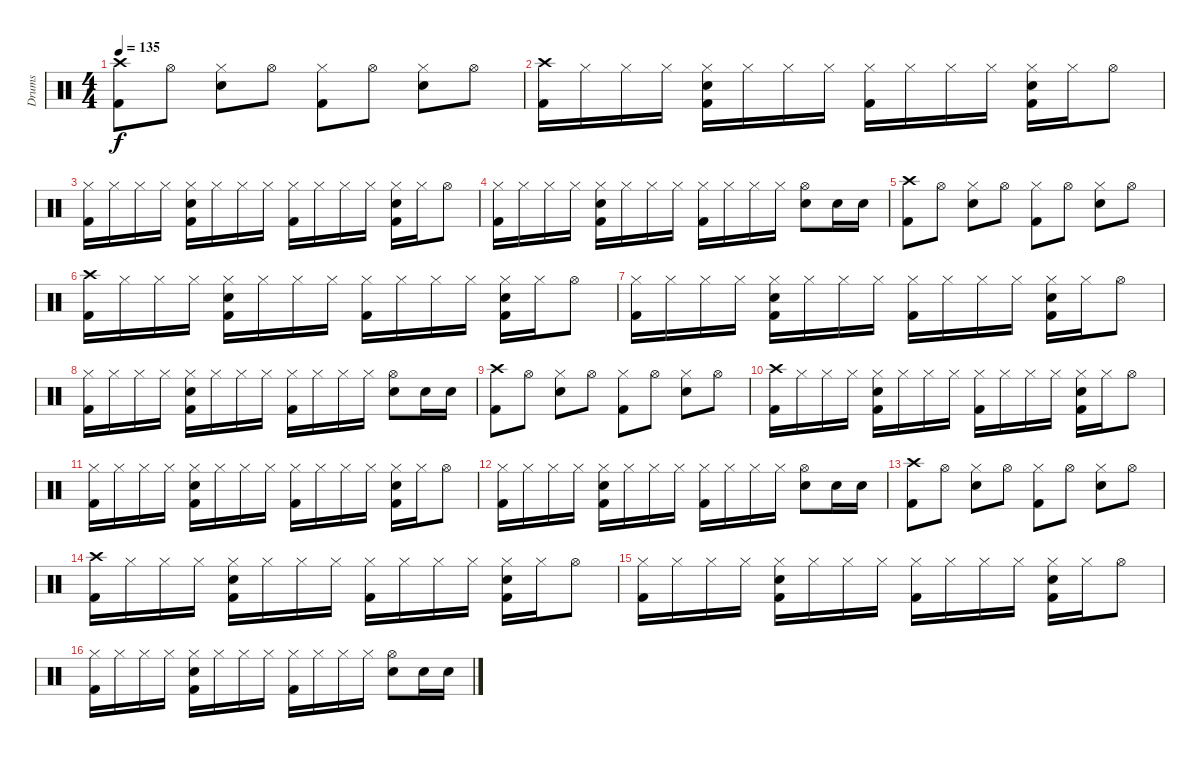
\track ("Drums" "Drums") {instrument percussion}
\staff {score}
\articulation defaults
\ts (4 4)
\tempo 135
\clef neutral
\ks c
("Crash high (hit)" "Kick (hit) 2").8{dy f} "Hi-Hat (open)".8 ("Hi-Hat (closed)" "Electric Snare (hit)").8 "Hi-Hat (open)".8 ("Hi-Hat (closed)" "Kick (hit) 2").8 "Hi-Hat (open)".8 ("Hi-Hat (closed)" "Electric Snare (hit)").8 "Hi-Hat (open)".8 |
("Crash high (hit)" "Kick (hit) 2").16 "Hi-Hat (closed)".16 "Hi-Hat (closed)".16 "Hi-Hat (closed)".16 ("Hi-Hat (closed)" "Electric Snare (hit)" "Kick (hit) 2").16 "Hi-Hat (closed)".16 "Hi-Hat (closed)".16 "Hi-Hat (closed)".16 ("Hi-Hat (closed)" "Kick (hit) 2").16 "Hi-Hat (closed)".16 "Hi-Hat (closed)".16 "Hi-Hat (closed)".16 ("Hi-Hat (closed)" "Electric Snare (hit)" "Kick (hit) 2").16 "Hi-Hat (closed)".16 "Hi-Hat (open)".8 |
("Hi-Hat (closed)" "Kick (hit) 2").16 "Hi-Hat (closed)".16 "Hi-Hat (closed)".16 "Hi-Hat (closed)".16 ("Hi-Hat (closed)" "Electric Snare (hit)" "Kick (hit) 2").16 "Hi-Hat (closed)".16 "Hi-Hat (closed)".16 "Hi-Hat (closed)".16 ("Hi-Hat (closed)" "Kick (hit) 2").16 "Hi-Hat (closed)".16 "Hi-Hat (closed)".16 "Hi-Hat (closed)".16 ("Hi-Hat (closed)" "Electric Snare (hit)" "Kick (hit) 2").16 "Hi-Hat (closed)".16 "Hi-Hat (open)".8 |
("Hi-Hat (closed)" "Kick (hit) 2").16 "Hi-Hat (closed)".16 "Hi-Hat (closed)".16 "Hi-Hat (closed)".16 ("Hi-Hat (closed)" "Electric Snare (hit)" "Kick (hit) 2").16 "Hi-Hat (closed)".16 "Hi-Hat (closed)".16 "Hi-Hat (closed)".16 ("Hi-Hat (closed)" "Kick (hit) 2").16 "Hi-Hat (closed)".16 "Hi-Hat (closed)".16 "Hi-Hat (closed)".16 ("Hi-Hat (open)" "Electric Snare (hit)").8 "Electric Snare (hit)".16 "Electric Snare (hit)".16 |
("Crash high (hit)" "Kick (hit) 2").8 "Hi-Hat (open)".8 ("Hi-Hat (closed)" "Electric Snare (hit)").8 "Hi-Hat (open)".8 ("Hi-Hat (closed)" "Kick (hit) 2").8 "Hi-Hat (open)".8 ("Hi-Hat (closed)" "Electric Snare (hit)").8 "Hi-Hat (open)".8 |
("Crash high (hit)" "Kick (hit) 2").16 "Hi-Hat (closed)".16 "Hi-Hat (closed)".16 "Hi-Hat (closed)".16 ("Hi-Hat (closed)" "Electric Snare (hit)" "Kick (hit) 2").16 "Hi-Hat (closed)".16 "Hi-Hat (closed)".16 "Hi-Hat (closed)".16 ("Hi-Hat (closed)" "Kick (hit) 2").16 "Hi-Hat (closed)".16 "Hi-Hat (closed)".16 "Hi-Hat (closed)".16 ("Hi-Hat (closed)" "Electric Snare (hit)" "Kick (hit) 2").16 "Hi-Hat (closed)".16 "Hi-Hat (open)".8 |
("Hi-Hat (closed)" "Kick (hit) 2").16 "Hi-Hat (closed)".16 "Hi-Hat (closed)".16 "Hi-Hat (closed)".16 ("Hi-Hat (closed)" "Electric Snare (hit)" "Kick (hit) 2").16 "Hi-Hat (closed)".16 "Hi-Hat (closed)".16 "Hi-Hat (closed)".16 ("Hi-Hat (closed)" "Kick (hit) 2").16 "Hi-Hat (closed)".16 "Hi-Hat (closed)".16 "Hi-Hat (closed)".16 ("Hi-Hat (closed)" "Electric Snare (hit)" "Kick (hit) 2").16 "Hi-Hat (closed)".16 "Hi-Hat (open)".8 |
("Hi-Hat (closed)" "Kick (hit) 2").16 "Hi-Hat (closed)".16 "Hi-Hat (closed)".16 "Hi-Hat (closed)".16 ("Hi-Hat (closed)" "Electric Snare (hit)" "Kick (hit) 2").16 "Hi-Hat (closed)".16 "Hi-Hat (closed)".16 "Hi-Hat (closed)".16 ("Hi-Hat (closed)" "Kick (hit) 2").16 "Hi-Hat (closed)".16 "Hi-Hat (closed)".16 "Hi-Hat (closed)".16 ("Hi-Hat (open)" "Electric Snare (hit)").8 "Electric Snare (hit)".16 "Electric Snare (hit)".16 |
("Crash high (hit)" "Kick (hit) 2").8 "Hi-Hat (open)".8 ("Hi-Hat (closed)" "Electric Snare (hit)").8 "Hi-Hat (open)".8 ("Hi-Hat (closed)" "Kick (hit) 2").8 "Hi-Hat (open)".8 ("Hi-Hat (closed)" "Electric Snare (hit)").8 "Hi-Hat (open)".8 |
("Crash high (hit)" "Kick (hit) 2").16 "Hi-Hat (closed)".16 "Hi-Hat (closed)".16 "Hi-Hat (closed)".16 ("Hi-Hat (closed)" "Electric Snare (hit)" "Kick (hit) 2").16 "Hi-Hat (closed)".16 "Hi-Hat (closed)".16 "Hi-Hat (closed)".16 ("Hi-Hat (closed)" "Kick (hit) 2").16 "Hi-Hat (closed)".16 "Hi-Hat (closed)".16 "Hi-Hat (closed)".16 ("Hi-Hat (closed)" "Electric Snare (hit)" "Kick (hit) 2").16 "Hi-Hat (closed)".16 "Hi-Hat (open)".8 |
("Hi-Hat (closed)" "Kick (hit) 2").16 "Hi-Hat (closed)".16 "Hi-Hat (closed)".16 "Hi-Hat (closed)".16 ("Hi-Hat (closed)" "Electric Snare (hit)" "Kick (hit) 2").16 "Hi-Hat (closed)".16 "Hi-Hat (closed)".16 "Hi-Hat (closed)".16 ("Hi-Hat (closed)" "Kick (hit) 2").16 "Hi-Hat (closed)".16 "Hi-Hat (closed)".16 "Hi-Hat (closed)".16 ("Hi-Hat (closed)" "Electric Snare (hit)" "Kick (hit) 2").16 "Hi-Hat (closed)".16 "Hi-Hat (open)".8 |
("Hi-Hat (closed)" "Kick (hit) 2").16 "Hi-Hat (closed)".16 "Hi-Hat (closed)".16 "Hi-Hat (closed)".16 ("Hi-Hat (closed)" "Electric Snare (hit)" "Kick (hit) 2").16 "Hi-Hat (closed)".16 "Hi-Hat (closed)".16 "Hi-Hat (closed)".16 ("Hi-Hat (closed)" "Kick (hit) 2").16 "Hi-Hat (closed)".16 "Hi-Hat (closed)".16 "Hi-Hat (closed)".16 ("Hi-Hat (open)" "Electric Snare (hit)").8 "Electric Snare (hit)".16 "Electric Snare (hit)".16 |
("Crash high (hit)" "Kick (hit) 2").8 "Hi-Hat (open)".8 ("Hi-Hat (closed)" "Electric Snare (hit)").8 "Hi-Hat (open)".8 ("Hi-Hat (closed)" "Kick (hit) 2").8 "Hi-Hat (open)".8 ("Hi-Hat (closed)" "Electric Snare (hit)").8 "Hi-Hat (open)".8 |
("Crash high (hit)" "Kick (hit) 2").16 "Hi-Hat (closed)".16 "Hi-Hat (closed)".16 "Hi-Hat (closed)".16 ("Hi-Hat (closed)" "Electric Snare (hit)" "Kick (hit) 2").16 "Hi-Hat (closed)".16 "Hi-Hat (closed)".16 "Hi-Hat (closed)".16 ("Hi-Hat (closed)" "Kick (hit) 2").16 "Hi-Hat (closed)".16 "Hi-Hat (closed)".16 "Hi-Hat (closed)".16 ("Hi-Hat (closed)" "Electric Snare (hit)" "Kick (hit) 2").16 "Hi-Hat (closed)".16 "Hi-Hat (open)".8 |
("Hi-Hat (closed)" "Kick (hit) 2").16 "Hi-Hat (closed)".16 "Hi-Hat (closed)".16 "Hi-Hat (closed)".16 ("Hi-Hat (closed)" "Electric Snare (hit)" "Kick (hit) 2").16 "Hi-Hat (closed)".16 "Hi-Hat (closed)".16 "Hi-Hat (closed)".16 ("Hi-Hat (closed)" "Kick (hit) 2").16 "Hi-Hat (closed)".16 "Hi-Hat (closed)".16 "Hi-Hat (closed)".16 ("Hi-Hat (closed)" "Electric Snare (hit)" "Kick (hit) 2").16 "Hi-Hat (closed)".16 "Hi-Hat (open)".8 |
("Hi-Hat (closed)" "Kick (hit) 2").16 "Hi-Hat (closed)".16 "Hi-Hat (closed)".16 "Hi-Hat (closed)".16 ("Hi-Hat (closed)" "Electric Snare (hit)" "Kick (hit) 2").16 "Hi-Hat (closed)".16 "Hi-Hat (closed)".16 "Hi-Hat (closed)".16 ("Hi-Hat (closed)" "Kick (hit) 2").16 "Hi-Hat (closed)".16 "Hi-Hat (closed)".16 "Hi-Hat (closed)".16 ("Hi-Hat (open)" "Electric Snare (hit)").8 "Electric Snare (hit)".16 "Electric Snare (hit)".16
